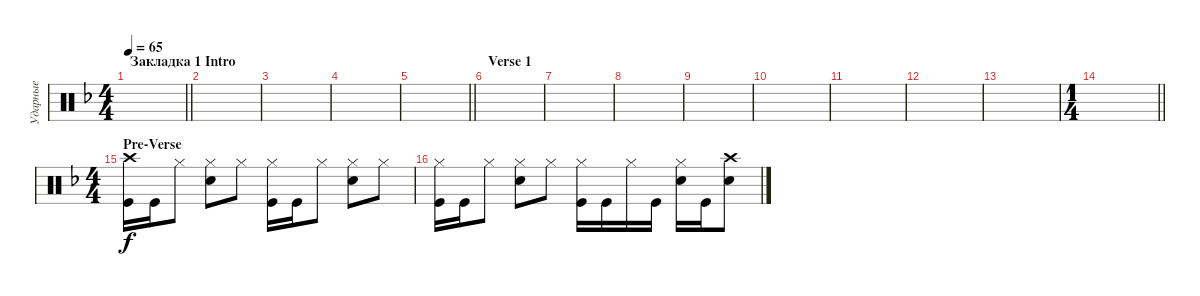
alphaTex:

\track ("Ударные" "Ударные") {instrument percussion}
\staff {score}
\articulation defaults
\ts (4 4)
\section ("" "Закладка 1")
\tempo 65
\clef neutral
\barLineRight lightlight
\ks dminor
|
\section ("" "Intro")
|
|
|
\barLineRight lightlight
|
\section ("" "Verse 1")
|
|
|
|
|
|
|
|
\ts (1 4)
\barLineRight lightlight
|
\ts (4 4)
\section ("" "Pre-Verse")
("Kick (hit)" "Crash high (hit)").16 "Kick (hit)".16 "Hi-Hat (closed)".8 ("Snare (hit) 2" "Hi-Hat (closed)").8 "Hi-Hat (closed)".8 ("Hi-Hat (closed)" "Kick (hit)").16 "Kick (hit)".16 "Hi-Hat (closed)".8 ("Hi-Hat (closed)" "Snare (hit) 2").8 "Hi-Hat (closed)".8 |
("Kick (hit)" "Hi-Hat (closed)").16 "Kick (hit)".16 "Hi-Hat (closed)".8 ("Snare (hit) 2" "Hi-Hat (closed)").8 "Hi-Hat (closed)".8 ("Hi-Hat (closed)" "Kick (hit)").16 "Kick (hit)".16 "Hi-Hat (closed)".16 "Kick (hit)".16 ("Hi-Hat (closed)" "Snare (hit) 2").16 "Kick (hit)".16 ("Crash high (hit)" "Snare (hit) 2").8
